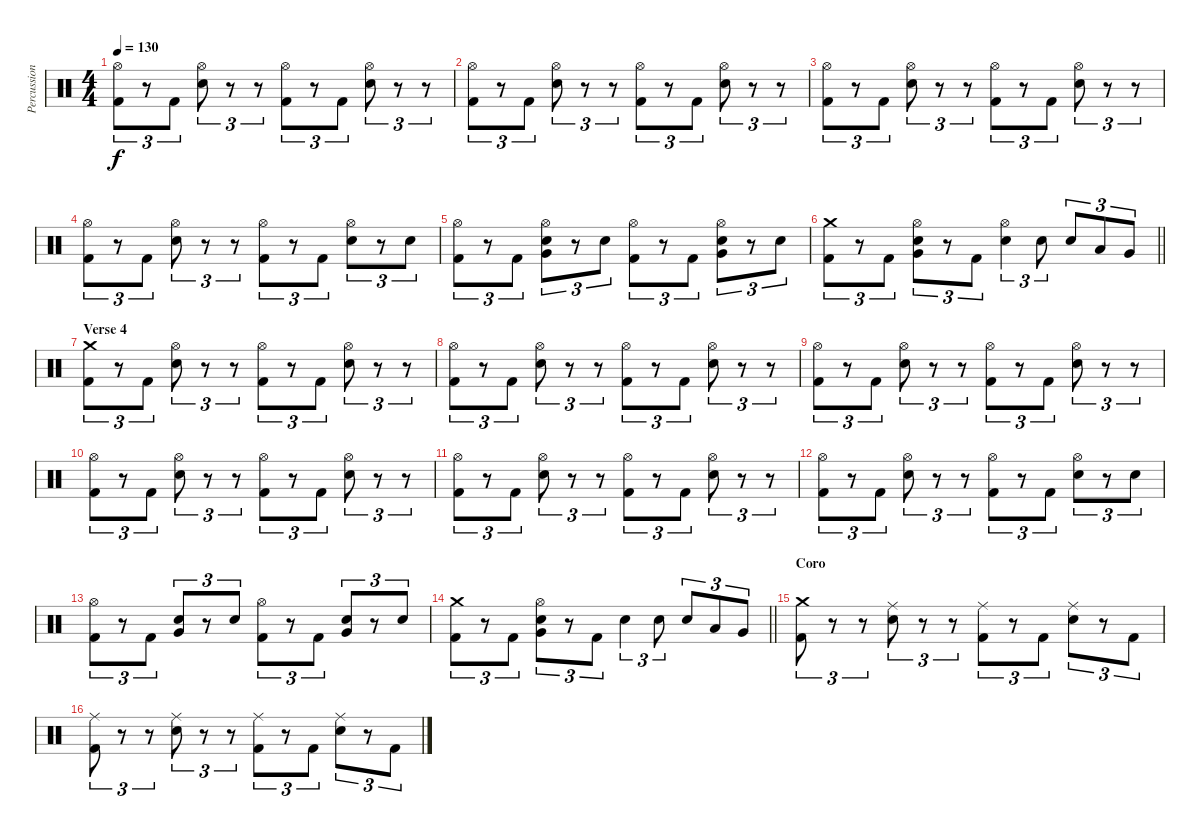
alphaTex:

\track ("Percussion" "Percussion") {instrument percussion}
\staff {score}
\articulation defaults
\ts (4 4)
\tempo 130
\clef neutral
\ks c
("Hi-Hat (open)" "Kick (hit) 2").8{tu (3 2) dy f} r.8{tu (3 2)} "Kick (hit) 2".8{tu (3 2)} ("Hi-Hat (open)" "Snare (hit) 2").8{tu (3 2)} r.8{tu (3 2)} r.8{tu (3 2)} ("Hi-Hat (open)" "Kick (hit) 2").8{tu (3 2)} r.8{tu (3 2)} "Kick (hit) 2".8{tu (3 2)} ("Hi-Hat (open)" "Snare (hit) 2").8{tu (3 2)} r.8{tu (3 2)} r.8{tu (3 2)} |
("Hi-Hat (open)" "Kick (hit) 2").8{tu (3 2)} r.8{tu (3 2)} "Kick (hit) 2".8{tu (3 2)} ("Hi-Hat (open)" "Snare (hit) 2").8{tu (3 2)} r.8{tu (3 2)} r.8{tu (3 2)} ("Hi-Hat (open)" "Kick (hit) 2").8{tu (3 2)} r.8{tu (3 2)} "Kick (hit) 2".8{tu (3 2)} ("Hi-Hat (open)" "Snare (hit) 2").8{tu (3 2)} r.8{tu (3 2)} r.8{tu (3 2)} |
("Hi-Hat (open)" "Kick (hit) 2").8{tu (3 2)} r.8{tu (3 2)} "Kick (hit) 2".8{tu (3 2)} ("Hi-Hat (open)" "Snare (hit) 2").8{tu (3 2)} r.8{tu (3 2)} r.8{tu (3 2)} ("Hi-Hat (open)" "Kick (hit) 2").8{tu (3 2)} r.8{tu (3 2)} "Kick (hit) 2".8{tu (3 2)} ("Hi-Hat (open)" "Snare (hit) 2").8{tu (3 2)} r.8{tu (3 2)} r.8{tu (3 2)} |
("Hi-Hat (open)" "Kick (hit) 2").8{tu (3 2)} r.8{tu (3 2)} "Kick (hit) 2".8{tu (3 2)} ("Hi-Hat (open)" "Snare (hit) 2").8{tu (3 2)} r.8{tu (3 2)} r.8{tu (3 2)} ("Hi-Hat (open)" "Kick (hit) 2").8{tu (3 2)} r.8{tu (3 2)} "Kick (hit) 2".8{tu (3 2)} ("Hi-Hat (open)" "Snare (hit) 2").8{tu (3 2)} r.8{tu (3 2)} "Snare (hit) 2".8{tu (3 2)} |
("Hi-Hat (open)" "Kick (hit) 2").8{tu (3 2)} r.8{tu (3 2)} "Kick (hit) 2".8{tu (3 2)} ("Hi-Hat (open)" "Very Low Tom (hit)" "Snare (hit) 2").8{tu (3 2)} r.8{tu (3 2)} "Snare (hit) 2".8{tu (3 2)} ("Hi-Hat (open)" "Kick (hit) 2").8{tu (3 2)} r.8{tu (3 2)} "Kick (hit) 2".8{tu (3 2)} ("Hi-Hat (open)" "Very Low Tom (hit)" "Snare (hit) 2").8{tu (3 2)} r.8{tu (3 2)} "Snare (hit) 2".8{tu (3 2)} |
\barLineRight lightlight
("Crash medium (hit)" "Kick (hit) 2").8{tu (3 2)} r.8{tu (3 2)} "Kick (hit) 2".8{tu (3 2)} ("Hi-Hat (open)" "Very Low Tom (hit)" "Snare (hit) 2").8{tu (3 2)} r.8{tu (3 2)} "Kick (hit) 2".8{tu (3 2)} ("Hi-Hat (open)" "Snare (hit) 2").4{tu (3 2)} "Snare (hit) 2".8{tu (3 2)} "Snare (hit) 2".8{tu (3 2)} "Low Tom (hit)".8{tu (3 2)} "Very Low Tom (hit)".8{tu (3 2)} |
\section ("" "Verse 4")
("Crash medium (hit)" "Kick (hit) 2").8{tu (3 2)} r.8{tu (3 2)} "Kick (hit) 2".8{tu (3 2)} ("Hi-Hat (open)" "Snare (hit) 2").8{tu (3 2)} r.8{tu (3 2)} r.8{tu (3 2)} ("Hi-Hat (open)" "Kick (hit) 2").8{tu (3 2)} r.8{tu (3 2)} "Kick (hit) 2".8{tu (3 2)} ("Hi-Hat (open)" "Snare (hit) 2").8{tu (3 2)} r.8{tu (3 2)} r.8{tu (3 2)} |
("Hi-Hat (open)" "Kick (hit) 2").8{tu (3 2)} r.8{tu (3 2)} "Kick (hit) 2".8{tu (3 2)} ("Hi-Hat (open)" "Snare (hit) 2").8{tu (3 2)} r.8{tu (3 2)} r.8{tu (3 2)} ("Hi-Hat (open)" "Kick (hit) 2").8{tu (3 2)} r.8{tu (3 2)} "Kick (hit) 2".8{tu (3 2)} ("Hi-Hat (open)" "Snare (hit) 2").8{tu (3 2)} r.8{tu (3 2)} r.8{tu (3 2)} |
("Hi-Hat (open)" "Kick (hit) 2").8{tu (3 2)} r.8{tu (3 2)} "Kick (hit) 2".8{tu (3 2)} ("Hi-Hat (open)" "Snare (hit) 2").8{tu (3 2)} r.8{tu (3 2)} r.8{tu (3 2)} ("Hi-Hat (open)" "Kick (hit) 2").8{tu (3 2)} r.8{tu (3 2)} "Kick (hit) 2".8{tu (3 2)} ("Hi-Hat (open)" "Snare (hit) 2").8{tu (3 2)} r.8{tu (3 2)} r.8{tu (3 2)} |
("Hi-Hat (open)" "Kick (hit) 2").8{tu (3 2)} r.8{tu (3 2)} "Kick (hit) 2".8{tu (3 2)} ("Hi-Hat (open)" "Snare (hit) 2").8{tu (3 2)} r.8{tu (3 2)} r.8{tu (3 2)} ("Hi-Hat (open)" "Kick (hit) 2").8{tu (3 2)} r.8{tu (3 2)} "Kick (hit) 2".8{tu (3 2)} ("Hi-Hat (open)" "Snare (hit) 2").8{tu (3 2)} r.8{tu (3 2)} r.8{tu (3 2)} |
("Hi-Hat (open)" "Kick (hit) 2").8{tu (3 2)} r.8{tu (3 2)} "Kick (hit) 2".8{tu (3 2)} ("Hi-Hat (open)" "Snare (hit) 2").8{tu (3 2)} r.8{tu (3 2)} r.8{tu (3 2)} ("Hi-Hat (open)" "Kick (hit) 2").8{tu (3 2)} r.8{tu (3 2)} "Kick (hit) 2".8{tu (3 2)} ("Hi-Hat (open)" "Snare (hit) 2").8{tu (3 2)} r.8{tu (3 2)} r.8{tu (3 2)} |
("Hi-Hat (open)" "Kick (hit) 2").8{tu (3 2)} r.8{tu (3 2)} "Kick (hit) 2".8{tu (3 2)} ("Hi-Hat (open)" "Snare (hit) 2").8{tu (3 2)} r.8{tu (3 2)} r.8{tu (3 2)} ("Hi-Hat (open)" "Kick (hit) 2").8{tu (3 2)} r.8{tu (3 2)} "Kick (hit) 2".8{tu (3 2)} ("Hi-Hat (open)" "Snare (hit) 2").8{tu (3 2)} r.8{tu (3 2)} "Snare (hit) 2".8{tu (3 2)} |
("Hi-Hat (open)" "Kick (hit) 2").8{tu (3 2)} r.8{tu (3 2)} "Kick (hit) 2".8{tu (3 2)} ("Very Low Tom (hit)" "Snare (hit) 2").8{tu (3 2)} r.8{tu (3 2)} "Snare (hit) 2".8{tu (3 2)} ("Hi-Hat (open)" "Kick (hit) 2").8{tu (3 2)} r.8{tu (3 2)} "Kick (hit) 2".8{tu (3 2)} ("Very Low Tom (hit)" "Snare (hit) 2").8{tu (3 2)} r.8{tu (3 2)} "Snare (hit) 2".8{tu (3 2)} |
\barLineRight lightlight
("Crash medium (hit)" "Kick (hit) 2").8{tu (3 2)} r.8{tu (3 2)} "Kick (hit) 2".8{tu (3 2)} ("Hi-Hat (open)" "Very Low Tom (hit)" "Snare (hit) 2").8{tu (3 2)} r.8{tu (3 2)} "Kick (hit) 2".8{tu (3 2)} "Snare (hit) 2".4{tu (3 2)} "Snare (hit) 2".8{tu (3 2)} "Snare (hit) 2".8{tu (3 2)} "Low Tom (hit)".8{tu (3 2)} "Very Low Tom (hit)".8{tu (3 2)} |
\section ("" "Coro")
("Crash medium (hit)" "Kick (hit) 2").8{tu (3 2)} r.8{tu (3 2)} r.8{tu (3 2)} ("Ride (middle)" "Snare (hit) 2").8{tu (3 2)} r.8{tu (3 2)} r.8{tu (3 2)} ("Ride (middle)" "Kick (hit) 2").8{tu (3 2)} r.8{tu (3 2)} "Kick (hit) 2".8{tu (3 2)} ("Ride (middle)" "Snare (hit) 2").8{tu (3 2)} r.8{tu (3 2)} "Kick (hit) 2".8{tu (3 2)} |
("Ride (middle)" "Kick (hit) 2").8{tu (3 2)} r.8{tu (3 2)} r.8{tu (3 2)} ("Ride (middle)" "Snare (hit) 2").8{tu (3 2)} r.8{tu (3 2)} r.8{tu (3 2)} ("Ride (middle)" "Kick (hit) 2").8{tu (3 2)} r.8{tu (3 2)} "Kick (hit) 2".8{tu (3 2)} ("Ride (middle)" "Snare (hit) 2").8{tu (3 2)} r.8{tu (3 2)} "Kick (hit) 2".8{tu (3 2)}
